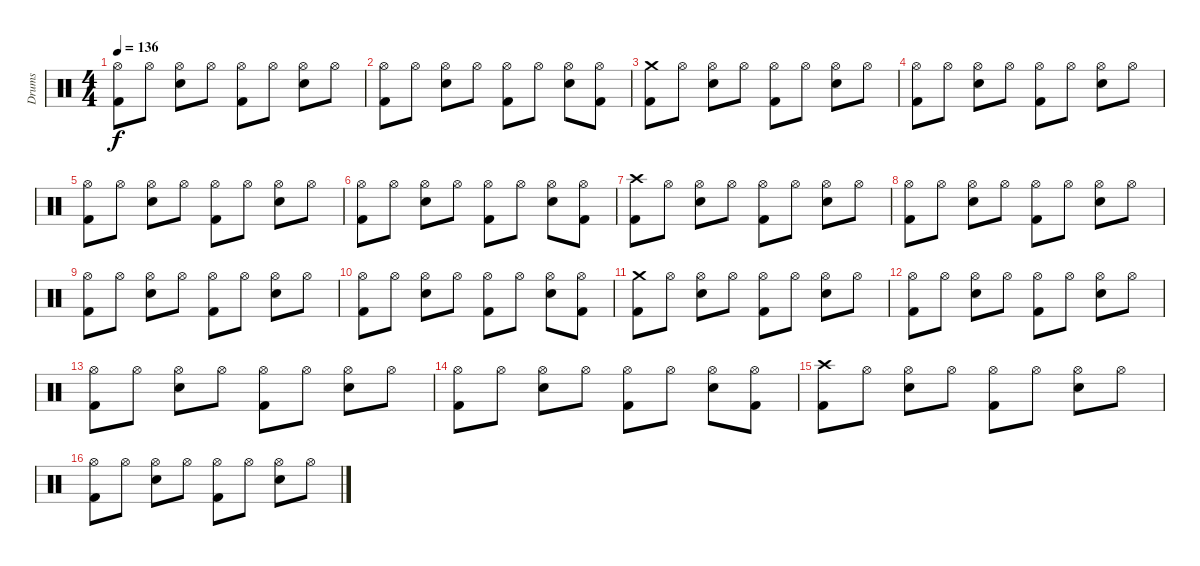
\track ("Drums" "Drums") {instrument percussion}
\staff {score}
\articulation defaults
\ts (4 4)
\tempo 136
\clef neutral
\ks c
("Hi-Hat (open)" "Kick (hit) 2").8{dy f} "Hi-Hat (open)".8 ("Hi-Hat (open)" "Electric Snare (hit)").8 "Hi-Hat (open)".8 ("Hi-Hat (open)" "Kick (hit) 2").8 "Hi-Hat (open)".8 ("Hi-Hat (open)" "Electric Snare (hit)").8 "Hi-Hat (open)".8 |
("Hi-Hat (open)" "Kick (hit) 2").8 "Hi-Hat (open)".8 ("Hi-Hat (open)" "Electric Snare (hit)").8 "Hi-Hat (open)".8 ("Hi-Hat (open)" "Kick (hit) 2").8 "Hi-Hat (open)".8 ("Hi-Hat (open)" "Electric Snare (hit)").8 ("Hi-Hat (open)" "Kick (hit) 2").8 |
("Crash medium (hit)" "Kick (hit) 2").8 "Hi-Hat (open)".8 ("Hi-Hat (open)" "Electric Snare (hit)").8 "Hi-Hat (open)".8 ("Hi-Hat (open)" "Kick (hit) 2").8 "Hi-Hat (open)".8 ("Hi-Hat (open)" "Electric Snare (hit)").8 "Hi-Hat (open)".8 |
("Hi-Hat (open)" "Kick (hit) 2").8 "Hi-Hat (open)".8 ("Hi-Hat (open)" "Electric Snare (hit)").8 "Hi-Hat (open)".8 ("Hi-Hat (open)" "Kick (hit) 2").8 "Hi-Hat (open)".8 ("Hi-Hat (open)" "Electric Snare (hit)").8 "Hi-Hat (open)".8 |
("Hi-Hat (open)" "Kick (hit) 2").8 "Hi-Hat (open)".8 ("Hi-Hat (open)" "Electric Snare (hit)").8 "Hi-Hat (open)".8 ("Hi-Hat (open)" "Kick (hit) 2").8 "Hi-Hat (open)".8 ("Hi-Hat (open)" "Electric Snare (hit)").8 "Hi-Hat (open)".8 |
("Hi-Hat (open)" "Kick (hit) 2").8 "Hi-Hat (open)".8 ("Hi-Hat (open)" "Electric Snare (hit)").8 "Hi-Hat (open)".8 ("Hi-Hat (open)" "Kick (hit) 2").8 "Hi-Hat (open)".8 ("Hi-Hat (open)" "Electric Snare (hit)").8 ("Hi-Hat (open)" "Kick (hit) 2").8 |
("Crash high (hit)" "Kick (hit) 2").8 "Hi-Hat (open)".8 ("Hi-Hat (open)" "Electric Snare (hit)").8 "Hi-Hat (open)".8 ("Hi-Hat (open)" "Kick (hit) 2").8 "Hi-Hat (open)".8 ("Hi-Hat (open)" "Electric Snare (hit)").8 "Hi-Hat (open)".8 |
("Hi-Hat (open)" "Kick (hit) 2").8 "Hi-Hat (open)".8 ("Hi-Hat (open)" "Electric Snare (hit)").8 "Hi-Hat (open)".8 ("Hi-Hat (open)" "Kick (hit) 2").8 "Hi-Hat (open)".8 ("Hi-Hat (open)" "Electric Snare (hit)").8 "Hi-Hat (open)".8 |
("Hi-Hat (open)" "Kick (hit) 2").8 "Hi-Hat (open)".8 ("Hi-Hat (open)" "Electric Snare (hit)").8 "Hi-Hat (open)".8 ("Hi-Hat (open)" "Kick (hit) 2").8 "Hi-Hat (open)".8 ("Hi-Hat (open)" "Electric Snare (hit)").8 "Hi-Hat (open)".8 |
("Hi-Hat (open)" "Kick (hit) 2").8 "Hi-Hat (open)".8 ("Hi-Hat (open)" "Electric Snare (hit)").8 "Hi-Hat (open)".8 ("Hi-Hat (open)" "Kick (hit) 2").8 "Hi-Hat (open)".8 ("Hi-Hat (open)" "Electric Snare (hit)").8 ("Hi-Hat (open)" "Kick (hit) 2").8 |
("Crash medium (hit)" "Kick (hit) 2").8 "Hi-Hat (open)".8 ("Hi-Hat (open)" "Electric Snare (hit)").8 "Hi-Hat (open)".8 ("Hi-Hat (open)" "Kick (hit) 2").8 "Hi-Hat (open)".8 ("Hi-Hat (open)" "Electric Snare (hit)").8 "Hi-Hat (open)".8 |
("Hi-Hat (open)" "Kick (hit) 2").8 "Hi-Hat (open)".8 ("Hi-Hat (open)" "Electric Snare (hit)").8 "Hi-Hat (open)".8 ("Hi-Hat (open)" "Kick (hit) 2").8 "Hi-Hat (open)".8 ("Hi-Hat (open)" "Electric Snare (hit)").8 "Hi-Hat (open)".8 |
("Hi-Hat (open)" "Kick (hit) 2").8 "Hi-Hat (open)".8 ("Hi-Hat (open)" "Electric Snare (hit)").8 "Hi-Hat (open)".8 ("Hi-Hat (open)" "Kick (hit) 2").8 "Hi-Hat (open)".8 ("Hi-Hat (open)" "Electric Snare (hit)").8 "Hi-Hat (open)".8 |
("Hi-Hat (open)" "Kick (hit) 2").8 "Hi-Hat (open)".8 ("Hi-Hat (open)" "Electric Snare (hit)").8 "Hi-Hat (open)".8 ("Hi-Hat (open)" "Kick (hit) 2").8 "Hi-Hat (open)".8 ("Hi-Hat (open)" "Electric Snare (hit)").8 ("Hi-Hat (open)" "Kick (hit) 2").8 |
("Crash high (hit)" "Kick (hit) 2").8 "Hi-Hat (open)".8 ("Hi-Hat (open)" "Electric Snare (hit)").8 "Hi-Hat (open)".8 ("Hi-Hat (open)" "Kick (hit) 2").8 "Hi-Hat (open)".8 ("Hi-Hat (open)" "Electric Snare (hit)").8 "Hi-Hat (open)".8 |
("Hi-Hat (open)" "Kick (hit) 2").8 "Hi-Hat (open)".8 ("Hi-Hat (open)" "Electric Snare (hit)").8 "Hi-Hat (open)".8 ("Hi-Hat (open)" "Kick (hit) 2").8 "Hi-Hat (open)".8 ("Hi-Hat (open)" "Electric Snare (hit)").8 "Hi-Hat (open)".8
